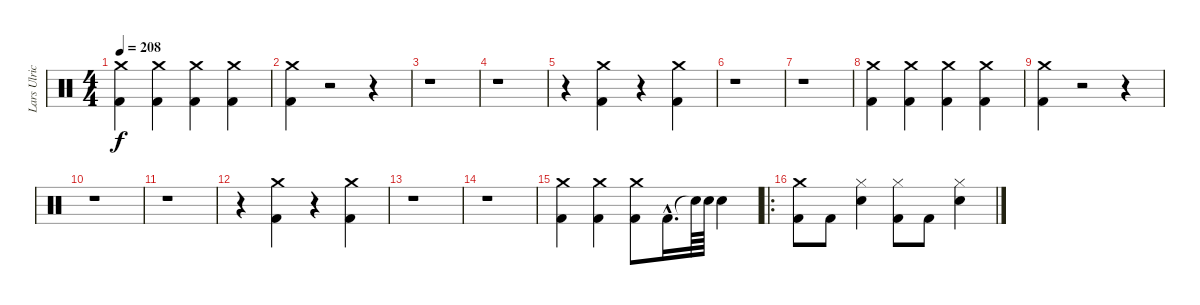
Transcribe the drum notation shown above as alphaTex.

\track ("Lars Ulrich (Drums)" "Lars Ulric") {instrument percussion}
\staff {score}
\articulation defaults
\ts (4 4)
\tempo 208
\clef neutral
\ks c
("Kick (hit) 2" "Crash medium (hit)").4{dy f} ("Kick (hit) 2" "Crash medium (hit)").4 ("Kick (hit) 2" "Crash medium (hit)").4 ("Kick (hit) 2" "Crash medium (hit)").4 |
("Kick (hit) 2" "Crash medium (hit)").4 r.2 r.4 |
r.1 |
r.1 |
r.4 ("Kick (hit) 2" "Crash medium (hit)").4 r.4 ("Kick (hit) 2" "Crash medium (hit)").4 |
r.1 |
r.1 |
("Kick (hit) 2" "Crash medium (hit)").4 ("Kick (hit) 2" "Crash medium (hit)").4 ("Kick (hit) 2" "Crash medium (hit)").4 ("Kick (hit) 2" "Crash medium (hit)").4 |
("Kick (hit) 2" "Crash medium (hit)").4 r.2 r.4 |
r.1 |
r.1 |
r.4 ("Kick (hit) 2" "Crash medium (hit)").4 r.4 ("Kick (hit) 2" "Crash medium (hit)").4 |
r.1 |
r.1 |
("Kick (hit) 2" "Crash medium (hit)").4 ("Kick (hit) 2" "Crash medium (hit)").4 ("Kick (hit) 2" "Crash medium (hit)").8 "Kick (hit) 2"{hac}.16{d} "Snare (hit)"{t}.64 "Snare (hit) 2".64 "Snare (hit) 2".4 |
\ro
("Crash medium (hit)" "Kick (hit) 2").8 "Kick (hit) 2".8 ("Hi-Hat (closed)" "Snare (hit) 2").4 ("Hi-Hat (closed)" "Kick (hit) 2").8 "Kick (hit) 2".8 ("Snare (hit) 2" "Hi-Hat (closed)").4
